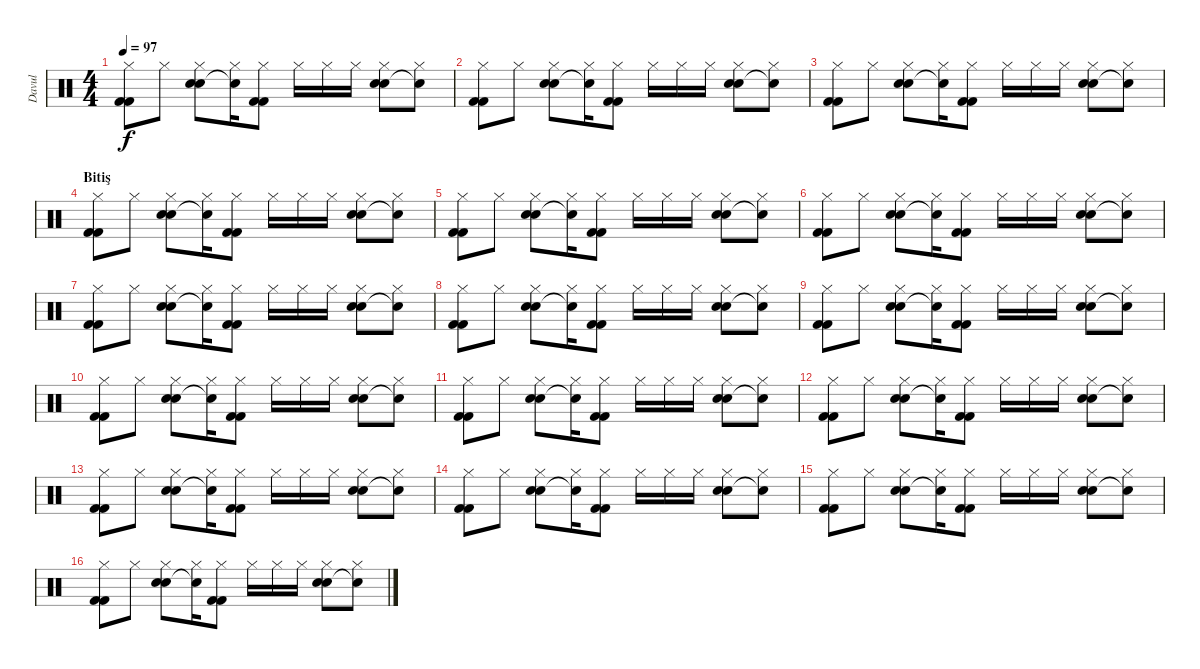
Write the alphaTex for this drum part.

\track ("Davul" "Davul") {instrument percussion}
\staff {score}
\articulation defaults
\ts (4 4)
\tempo 97
\clef neutral
\ks c
("Hi-Hat (closed)" "Kick (hit) 2" "Kick (hit) 2").8{dy f} "Hi-Hat (closed)".8 ("Hi-Hat (closed)" "Snare (hit) 2" "Snare (hit) 2").8 ("Hi-Hat (closed)" "Snare (hit)"{t}).16 ("Hi-Hat (closed)" "Kick (hit) 2" "Kick (hit) 2").8 "Hi-Hat (closed)".16 "Hi-Hat (closed)".16 "Hi-Hat (closed)".16 ("Hi-Hat (closed)" "Snare (hit) 2" "Snare (hit) 2").8 ("Hi-Hat (closed)" "Snare (hit)"{t}).8 |
("Hi-Hat (closed)" "Kick (hit) 2" "Kick (hit) 2").8 "Hi-Hat (closed)".8 ("Hi-Hat (closed)" "Snare (hit) 2" "Snare (hit) 2").8 ("Hi-Hat (closed)" "Snare (hit)"{t}).16 ("Hi-Hat (closed)" "Kick (hit) 2" "Kick (hit) 2").8 "Hi-Hat (closed)".16 "Hi-Hat (closed)".16 "Hi-Hat (closed)".16 ("Hi-Hat (closed)" "Snare (hit) 2" "Snare (hit) 2").8 ("Hi-Hat (closed)" "Snare (hit)"{t}).8 |
("Hi-Hat (closed)" "Kick (hit) 2" "Kick (hit) 2").8 "Hi-Hat (closed)".8 ("Hi-Hat (closed)" "Snare (hit) 2" "Snare (hit) 2").8 ("Hi-Hat (closed)" "Snare (hit)"{t}).16 ("Hi-Hat (closed)" "Kick (hit) 2" "Kick (hit) 2").8 "Hi-Hat (closed)".16 "Hi-Hat (closed)".16 "Hi-Hat (closed)".16 ("Hi-Hat (closed)" "Snare (hit) 2" "Snare (hit) 2").8 ("Hi-Hat (closed)" "Snare (hit)"{t}).8 |
\section ("" "Bitiş")
("Hi-Hat (closed)" "Kick (hit) 2" "Kick (hit) 2").8 "Hi-Hat (closed)".8 ("Hi-Hat (closed)" "Snare (hit) 2" "Snare (hit) 2").8 ("Hi-Hat (closed)" "Snare (hit)"{t}).16 ("Hi-Hat (closed)" "Kick (hit) 2" "Kick (hit) 2").8 "Hi-Hat (closed)".16 "Hi-Hat (closed)".16 "Hi-Hat (closed)".16 ("Hi-Hat (closed)" "Snare (hit) 2" "Snare (hit) 2").8 ("Hi-Hat (closed)" "Snare (hit)"{t}).8 |
("Hi-Hat (closed)" "Kick (hit) 2" "Kick (hit) 2").8 "Hi-Hat (closed)".8 ("Hi-Hat (closed)" "Snare (hit) 2" "Snare (hit) 2").8 ("Hi-Hat (closed)" "Snare (hit)"{t}).16 ("Hi-Hat (closed)" "Kick (hit) 2" "Kick (hit) 2").8 "Hi-Hat (closed)".16 "Hi-Hat (closed)".16 "Hi-Hat (closed)".16 ("Hi-Hat (closed)" "Snare (hit) 2" "Snare (hit) 2").8 ("Hi-Hat (closed)" "Snare (hit)"{t}).8 |
("Hi-Hat (closed)" "Kick (hit) 2" "Kick (hit) 2").8 "Hi-Hat (closed)".8 ("Hi-Hat (closed)" "Snare (hit) 2" "Snare (hit) 2").8 ("Hi-Hat (closed)" "Snare (hit)"{t}).16 ("Hi-Hat (closed)" "Kick (hit) 2" "Kick (hit) 2").8 "Hi-Hat (closed)".16 "Hi-Hat (closed)".16 "Hi-Hat (closed)".16 ("Hi-Hat (closed)" "Snare (hit) 2" "Snare (hit) 2").8 ("Hi-Hat (closed)" "Snare (hit)"{t}).8 |
("Hi-Hat (closed)" "Kick (hit) 2" "Kick (hit) 2").8 "Hi-Hat (closed)".8 ("Hi-Hat (closed)" "Snare (hit) 2" "Snare (hit) 2").8 ("Hi-Hat (closed)" "Snare (hit)"{t}).16 ("Hi-Hat (closed)" "Kick (hit) 2" "Kick (hit) 2").8 "Hi-Hat (closed)".16 "Hi-Hat (closed)".16 "Hi-Hat (closed)".16 ("Hi-Hat (closed)" "Snare (hit) 2" "Snare (hit) 2").8 ("Hi-Hat (closed)" "Snare (hit)"{t}).8 |
("Hi-Hat (closed)" "Kick (hit) 2" "Kick (hit) 2").8 "Hi-Hat (closed)".8 ("Hi-Hat (closed)" "Snare (hit) 2" "Snare (hit) 2").8 ("Hi-Hat (closed)" "Snare (hit)"{t}).16 ("Hi-Hat (closed)" "Kick (hit) 2" "Kick (hit) 2").8 "Hi-Hat (closed)".16 "Hi-Hat (closed)".16 "Hi-Hat (closed)".16 ("Hi-Hat (closed)" "Snare (hit) 2" "Snare (hit) 2").8 ("Hi-Hat (closed)" "Snare (hit)"{t}).8 |
("Hi-Hat (closed)" "Kick (hit) 2" "Kick (hit) 2").8 "Hi-Hat (closed)".8 ("Hi-Hat (closed)" "Snare (hit) 2" "Snare (hit) 2").8 ("Hi-Hat (closed)" "Snare (hit)"{t}).16 ("Hi-Hat (closed)" "Kick (hit) 2" "Kick (hit) 2").8 "Hi-Hat (closed)".16 "Hi-Hat (closed)".16 "Hi-Hat (closed)".16 ("Hi-Hat (closed)" "Snare (hit) 2" "Snare (hit) 2").8 ("Hi-Hat (closed)" "Snare (hit)"{t}).8 |
("Hi-Hat (closed)" "Kick (hit) 2" "Kick (hit) 2").8 "Hi-Hat (closed)".8 ("Hi-Hat (closed)" "Snare (hit) 2" "Snare (hit) 2").8 ("Hi-Hat (closed)" "Snare (hit)"{t}).16 ("Hi-Hat (closed)" "Kick (hit) 2" "Kick (hit) 2").8 "Hi-Hat (closed)".16 "Hi-Hat (closed)".16 "Hi-Hat (closed)".16 ("Hi-Hat (closed)" "Snare (hit) 2" "Snare (hit) 2").8 ("Hi-Hat (closed)" "Snare (hit)"{t}).8 |
("Hi-Hat (closed)" "Kick (hit) 2" "Kick (hit) 2").8 "Hi-Hat (closed)".8 ("Hi-Hat (closed)" "Snare (hit) 2" "Snare (hit) 2").8 ("Hi-Hat (closed)" "Snare (hit)"{t}).16 ("Hi-Hat (closed)" "Kick (hit) 2" "Kick (hit) 2").8 "Hi-Hat (closed)".16 "Hi-Hat (closed)".16 "Hi-Hat (closed)".16 ("Hi-Hat (closed)" "Snare (hit) 2" "Snare (hit) 2").8 ("Hi-Hat (closed)" "Snare (hit)"{t}).8 |
("Hi-Hat (closed)" "Kick (hit) 2" "Kick (hit) 2").8 "Hi-Hat (closed)".8 ("Hi-Hat (closed)" "Snare (hit) 2" "Snare (hit) 2").8 ("Hi-Hat (closed)" "Snare (hit)"{t}).16 ("Hi-Hat (closed)" "Kick (hit) 2" "Kick (hit) 2").8 "Hi-Hat (closed)".16 "Hi-Hat (closed)".16 "Hi-Hat (closed)".16 ("Hi-Hat (closed)" "Snare (hit) 2" "Snare (hit) 2").8 ("Hi-Hat (closed)" "Snare (hit)"{t}).8 |
("Hi-Hat (closed)" "Kick (hit) 2" "Kick (hit) 2").8 "Hi-Hat (closed)".8 ("Hi-Hat (closed)" "Snare (hit) 2" "Snare (hit) 2").8 ("Hi-Hat (closed)" "Snare (hit)"{t}).16 ("Hi-Hat (closed)" "Kick (hit) 2" "Kick (hit) 2").8 "Hi-Hat (closed)".16 "Hi-Hat (closed)".16 "Hi-Hat (closed)".16 ("Hi-Hat (closed)" "Snare (hit) 2" "Snare (hit) 2").8 ("Hi-Hat (closed)" "Snare (hit)"{t}).8 |
("Hi-Hat (closed)" "Kick (hit) 2" "Kick (hit) 2").8 "Hi-Hat (closed)".8 ("Hi-Hat (closed)" "Snare (hit) 2" "Snare (hit) 2").8 ("Hi-Hat (closed)" "Snare (hit)"{t}).16 ("Hi-Hat (closed)" "Kick (hit) 2" "Kick (hit) 2").8 "Hi-Hat (closed)".16 "Hi-Hat (closed)".16 "Hi-Hat (closed)".16 ("Hi-Hat (closed)" "Snare (hit) 2" "Snare (hit) 2").8 ("Hi-Hat (closed)" "Snare (hit)"{t}).8 |
("Hi-Hat (closed)" "Kick (hit) 2" "Kick (hit) 2").8 "Hi-Hat (closed)".8 ("Hi-Hat (closed)" "Snare (hit) 2" "Snare (hit) 2").8 ("Hi-Hat (closed)" "Snare (hit)"{t}).16 ("Hi-Hat (closed)" "Kick (hit) 2" "Kick (hit) 2").8 "Hi-Hat (closed)".16 "Hi-Hat (closed)".16 "Hi-Hat (closed)".16 ("Hi-Hat (closed)" "Snare (hit) 2" "Snare (hit) 2").8 ("Hi-Hat (closed)" "Snare (hit)"{t}).8 |
("Hi-Hat (closed)" "Kick (hit) 2" "Kick (hit) 2").8 "Hi-Hat (closed)".8 ("Hi-Hat (closed)" "Snare (hit) 2" "Snare (hit) 2").8 ("Hi-Hat (closed)" "Snare (hit)"{t}).16 ("Hi-Hat (closed)" "Kick (hit) 2" "Kick (hit) 2").8 "Hi-Hat (closed)".16 "Hi-Hat (closed)".16 "Hi-Hat (closed)".16 ("Hi-Hat (closed)" "Snare (hit) 2" "Snare (hit) 2").8 ("Hi-Hat (closed)" "Snare (hit)"{t}).8
